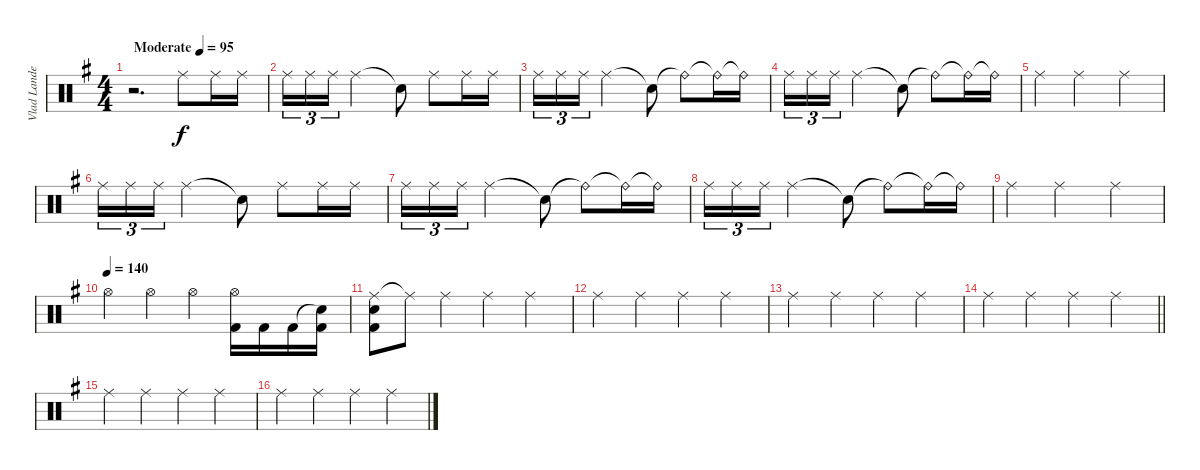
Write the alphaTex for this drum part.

\track ("Vlad Landeros" "Vlad Lande") {instrument percussion}
\staff {score}
\articulation defaults
\ts (4 4)
\tempo (95 "Moderate")
\clef neutral
\ks eminor
r.2{d dy f} "Ride (middle)".8 "Ride (middle)".16 "Ride (middle)".16 |
"Ride (middle)".16{tu (3 2)} "Ride (middle)".16{tu (3 2)} "Ride (middle)".16{tu (3 2)} "Ride (middle)".2 "Snare (hit)"{t}.8 "Ride (middle)".8 "Ride (middle)".16 "Ride (middle)".16 |
"Ride (middle)".16{tu (3 2)} "Ride (middle)".16{tu (3 2)} "Ride (middle)".16{tu (3 2)} "Ride (middle)".2 "Snare (hit)"{t}.8 "Ride (bell)"{t}.8 "Ride (bell)"{t}.16 "Ride (bell)"{t}.16 |
"Ride (middle)".16{tu (3 2)} "Ride (middle)".16{tu (3 2)} "Ride (middle)".16{tu (3 2)} "Ride (middle)".2 "Snare (hit)"{t}.8 "Ride (bell)"{t}.8 "Ride (bell)"{t}.16 "Ride (bell)"{t}.16 |
"Ride (middle)".4 "Ride (middle)".2 "Ride (middle)".4 |
"Ride (middle)".16{tu (3 2)} "Ride (middle)".16{tu (3 2)} "Ride (middle)".16{tu (3 2)} "Ride (middle)".2 "Snare (hit)"{t}.8 "Ride (middle)".8 "Ride (middle)".16 "Ride (middle)".16 |
"Ride (middle)".16{tu (3 2)} "Ride (middle)".16{tu (3 2)} "Ride (middle)".16{tu (3 2)} "Ride (middle)".2 "Snare (hit)"{t}.8 "Ride (bell)"{t}.8 "Ride (bell)"{t}.16 "Ride (bell)"{t}.16 |
"Ride (middle)".16{tu (3 2)} "Ride (middle)".16{tu (3 2)} "Ride (middle)".16{tu (3 2)} "Ride (middle)".2 "Snare (hit)"{t}.8 "Ride (bell)"{t}.8 "Ride (bell)"{t}.16 "Ride (bell)"{t}.16 |
"Ride (middle)".4 "Ride (middle)".2 "Ride (middle)".4 |
\tempo (140)
"Hi-Hat (open)".4 "Hi-Hat (open)".4 "Hi-Hat (open)".4 ("Hi-Hat (open)" "Kick (hit) 2").16 "Kick (hit) 2".16 "Kick (hit) 2".16 ("Snare (hit)"{t} "Kick (hit) 2").16 |
("Ride (middle)" "Snare (hit) 2" "Kick (hit) 2").8 "Ride (middle)"{t}.8 "Ride (middle)".4 "Ride (middle)".4 "Ride (middle)".4 |
"Ride (middle)".4 "Ride (middle)".4 "Ride (middle)".4 "Ride (middle)".4 |
"Ride (middle)".4 "Ride (middle)".4 "Ride (middle)".4 "Ride (middle)".4 |
\barLineRight lightlight "Ride (middle)".4 "Ride (middle)".4 "Ride (middle)".4 "Ride (middle)".4
|
"Ride (middle)".4 "Ride (middle)".4 "Ride (middle)".4 "Ride (middle)".4 |
"Ride (middle)".4 "Ride (middle)".4 "Ride (middle)".4 "Ride (middle)".4
